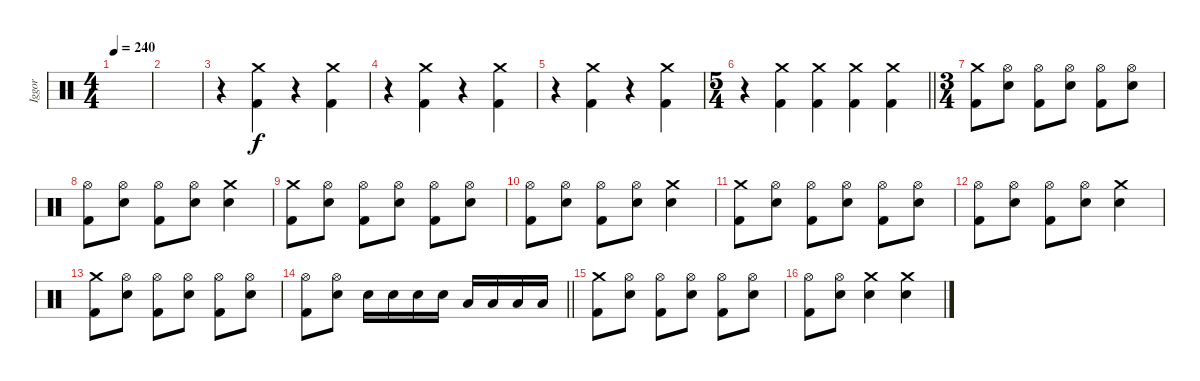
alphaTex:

\track ("Iggor" "Iggor") {instrument percussion}
\staff {score}
\articulation defaults
\ts (4 4)
\tempo 240
\clef neutral
\ks c
|
|
r.4 ("Crash medium (hit)" "Kick (hit) 2").4 r.4{volume 0} ("Crash medium (hit)" "Kick (hit) 2").4{volume 13} |
r.4{volume 0} ("Crash medium (hit)" "Kick (hit) 2").4{volume 13} r.4{volume 0} ("Crash medium (hit)" "Kick (hit) 2").4{volume 13} |
r.4{volume 0} ("Crash medium (hit)" "Kick (hit) 2").4{volume 13} r.4{volume 0} ("Crash medium (hit)" "Kick (hit) 2").4{volume 13} |
\ts (5 4)
\barLineRight lightlight
r.4{volume 0} ("Crash medium (hit)" "Kick (hit) 2").4{volume 13} ("Crash medium (hit)" "Kick (hit) 2").4 ("Crash medium (hit)" "Kick (hit) 2").4 ("Crash medium (hit)" "Kick (hit) 2").4 |
\ts (3 4)
\section ("" "")
("Crash medium (hit)" "Kick (hit) 2").8 ("Hi-Hat (open)" "Snare (hit) 2").8 ("Hi-Hat (open)" "Kick (hit) 2").8 ("Hi-Hat (open)" "Snare (hit) 2").8 ("Hi-Hat (open)" "Kick (hit) 2").8 ("Hi-Hat (open)" "Snare (hit) 2").8 |
("Hi-Hat (open)" "Kick (hit) 2").8 ("Hi-Hat (open)" "Snare (hit) 2").8 ("Hi-Hat (open)" "Kick (hit) 2").8 ("Hi-Hat (open)" "Snare (hit) 2").8 ("Crash medium (hit)" "Snare (hit) 2").4 |
("Crash medium (hit)" "Kick (hit) 2").8 ("Hi-Hat (open)" "Snare (hit) 2").8 ("Hi-Hat (open)" "Kick (hit) 2").8 ("Hi-Hat (open)" "Snare (hit) 2").8 ("Hi-Hat (open)" "Kick (hit) 2").8 ("Hi-Hat (open)" "Snare (hit) 2").8 |
("Hi-Hat (open)" "Kick (hit) 2").8 ("Hi-Hat (open)" "Snare (hit) 2").8 ("Hi-Hat (open)" "Kick (hit) 2").8 ("Hi-Hat (open)" "Snare (hit) 2").8 ("Crash medium (hit)" "Snare (hit) 2").4 |
("Crash medium (hit)" "Kick (hit) 2").8 ("Hi-Hat (open)" "Snare (hit) 2").8 ("Hi-Hat (open)" "Kick (hit) 2").8 ("Hi-Hat (open)" "Snare (hit) 2").8 ("Hi-Hat (open)" "Kick (hit) 2").8 ("Hi-Hat (open)" "Snare (hit) 2").8 |
("Hi-Hat (open)" "Kick (hit) 2").8 ("Hi-Hat (open)" "Snare (hit) 2").8 ("Hi-Hat (open)" "Kick (hit) 2").8 ("Hi-Hat (open)" "Snare (hit) 2").8 ("Crash medium (hit)" "Snare (hit) 2").4 |
("Crash medium (hit)" "Kick (hit) 2").8 ("Hi-Hat (open)" "Snare (hit) 2").8 ("Hi-Hat (open)" "Kick (hit) 2").8 ("Hi-Hat (open)" "Snare (hit) 2").8 ("Hi-Hat (open)" "Kick (hit) 2").8 ("Hi-Hat (open)" "Snare (hit) 2").8 |
\barLineRight lightlight
("Hi-Hat (open)" "Kick (hit) 2").8 ("Hi-Hat (open)" "Snare (hit) 2").8 "Snare (hit) 2".16 "Snare (hit) 2".16 "Snare (hit) 2".16 "Snare (hit) 2".16 "Low Tom (hit)".16 "Low Tom (hit)".16 "Low Tom (hit)".16 "Low Tom (hit)".16 |
("Crash medium (hit)" "Kick (hit) 2").8 ("Hi-Hat (open)" "Snare (hit) 2").8 ("Hi-Hat (open)" "Kick (hit) 2").8 ("Hi-Hat (open)" "Snare (hit) 2").8 ("Hi-Hat (open)" "Kick (hit) 2").8 ("Hi-Hat (open)" "Snare (hit) 2").8 |
("Hi-Hat (open)" "Kick (hit) 2").8 ("Hi-Hat (open)" "Snare (hit) 2").8 ("Crash medium (hit)" "Snare (hit) 2").4 ("Crash medium (hit)" "Snare (hit) 2").4
